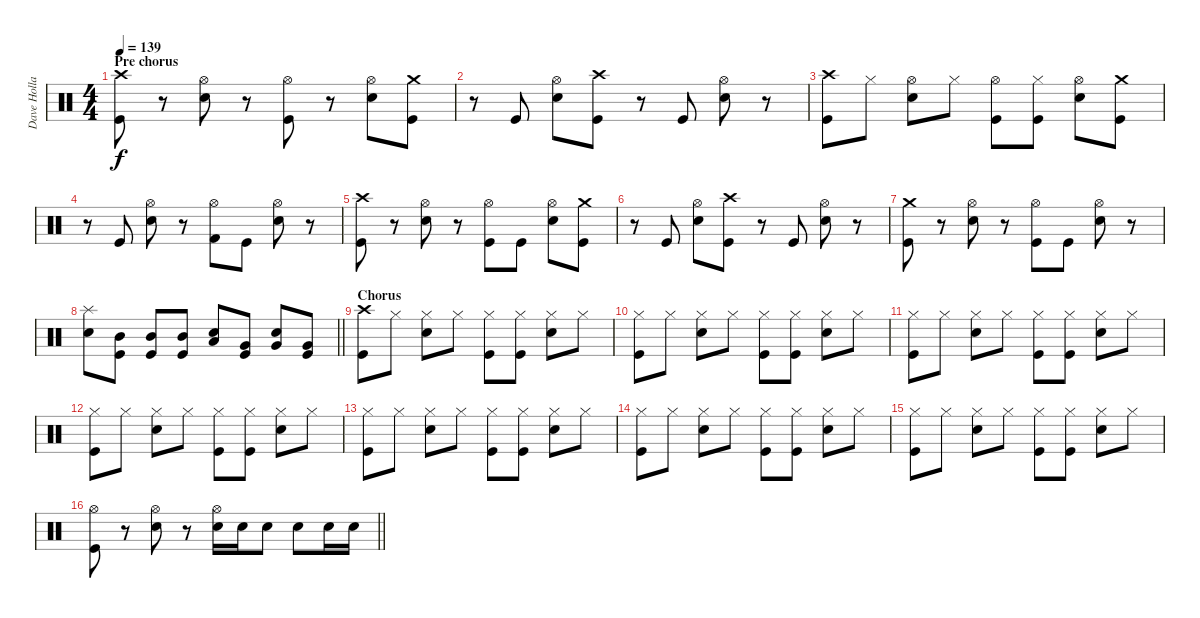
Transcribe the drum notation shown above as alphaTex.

\track ("Dave Holland" "Dave Holla") {instrument percussion}
\staff {score}
\articulation defaults
\ts (4 4)
\section ("" "Pre chorus")
\tempo 139
\clef neutral
\ks c
("Crash high (hit)" "Kick (hit)").8{dy f} r.8 ("Hi-Hat (open)" "Electric Snare (hit)").8 r.8 ("Hi-Hat (open)" "Kick (hit)").8 r.8 ("Hi-Hat (open)" "Electric Snare (hit)").8 ("Crash medium (hit)" "Kick (hit)").8 |
r.8 "Kick (hit)".8 ("Hi-Hat (open)" "Electric Snare (hit)").8 ("Crash high (hit)" "Kick (hit)").8 r.8 "Kick (hit)".8 ("Hi-Hat (open)" "Electric Snare (hit)").8 r.8 |
("Crash high (hit)" "Kick (hit)").8 "Hi-Hat (closed)".8 ("Hi-Hat (open)" "Electric Snare (hit)").8 "Hi-Hat (closed)".8 ("Hi-Hat (open)" "Kick (hit)").8 ("Hi-Hat (closed)" "Kick (hit)").8 ("Hi-Hat (open)" "Electric Snare (hit)").8 ("Crash medium (hit)" "Kick (hit)").8 |
r.8 "Kick (hit)".8 ("Hi-Hat (open)" "Electric Snare (hit)").8 r.8 ("Hi-Hat (open)" "Kick (hit) 2").8 "Kick (hit)".8 ("Hi-Hat (open)" "Electric Snare (hit)").8 r.8 |
("Crash high (hit)" "Kick (hit)").8 r.8 ("Hi-Hat (open)" "Electric Snare (hit)").8 r.8 ("Hi-Hat (open)" "Kick (hit)").8 "Kick (hit)".8 ("Hi-Hat (open)" "Electric Snare (hit)").8 ("Crash medium (hit)" "Kick (hit)").8 |
r.8 "Kick (hit)".8 ("Hi-Hat (open)" "Electric Snare (hit)").8 ("Crash high (hit)" "Kick (hit)").8 r.8 "Kick (hit)".8 ("Hi-Hat (open)" "Electric Snare (hit)").8 r.8 |
("Crash medium (hit)" "Kick (hit)").8 r.8 ("Hi-Hat (open)" "Electric Snare (hit)").8 r.8 ("Hi-Hat (open)" "Kick (hit)").8 "Kick (hit)".8 ("Hi-Hat (open)" "Electric Snare (hit)").8 r.8 |
\barLineRight lightlight
("Splash (hit)" "Electric Snare (hit)").8 ("Mid Tom (hit)" "Kick (hit)").8 ("Mid Tom (hit)" "Kick (hit)").8 ("Mid Tom (hit)" "Kick (hit)").8 ("Low Tom (hit)" "Electric Snare (hit)").8 ("Very Low Tom (hit)" "Kick (hit)").8 ("Very Low Tom (hit)" "Electric Snare (hit)").8 ("Very Low Tom (hit)" "Kick (hit)").8 |
\section ("" "Chorus")
("Crash high (hit)" "Kick (hit)").8 "Hi-Hat (closed)".8 ("Hi-Hat (closed)" "Electric Snare (hit)").8 "Hi-Hat (closed)".8 ("Hi-Hat (closed)" "Kick (hit)").8 ("Hi-Hat (closed)" "Kick (hit)").8 ("Hi-Hat (closed)" "Electric Snare (hit)").8 "Hi-Hat (closed)".8 |
("Hi-Hat (closed)" "Kick (hit)").8 "Hi-Hat (closed)".8 ("Hi-Hat (closed)" "Electric Snare (hit)").8 "Hi-Hat (closed)".8 ("Hi-Hat (closed)" "Kick (hit)").8 ("Hi-Hat (closed)" "Kick (hit)").8 ("Hi-Hat (closed)" "Electric Snare (hit)").8 "Hi-Hat (closed)".8 |
("Hi-Hat (closed)" "Kick (hit)").8 "Hi-Hat (closed)".8 ("Hi-Hat (closed)" "Electric Snare (hit)").8 "Hi-Hat (closed)".8 ("Hi-Hat (closed)" "Kick (hit)").8 ("Hi-Hat (closed)" "Kick (hit)").8 ("Hi-Hat (closed)" "Electric Snare (hit)").8 "Hi-Hat (closed)".8 |
("Hi-Hat (closed)" "Kick (hit)").8 "Hi-Hat (closed)".8 ("Hi-Hat (closed)" "Electric Snare (hit)").8 "Hi-Hat (closed)".8 ("Hi-Hat (closed)" "Kick (hit)").8 ("Hi-Hat (closed)" "Kick (hit)").8 ("Hi-Hat (closed)" "Electric Snare (hit)").8 "Hi-Hat (closed)".8 |
("Hi-Hat (closed)" "Kick (hit)").8 "Hi-Hat (closed)".8 ("Hi-Hat (closed)" "Electric Snare (hit)").8 "Hi-Hat (closed)".8 ("Hi-Hat (closed)" "Kick (hit)").8 ("Hi-Hat (closed)" "Kick (hit)").8 ("Hi-Hat (closed)" "Electric Snare (hit)").8 "Hi-Hat (closed)".8 |
("Hi-Hat (closed)" "Kick (hit)").8 "Hi-Hat (closed)".8 ("Hi-Hat (closed)" "Electric Snare (hit)").8 "Hi-Hat (closed)".8 ("Hi-Hat (closed)" "Kick (hit)").8 ("Hi-Hat (closed)" "Kick (hit)").8 ("Hi-Hat (closed)" "Electric Snare (hit)").8 "Hi-Hat (closed)".8 |
("Hi-Hat (closed)" "Kick (hit)").8 "Hi-Hat (closed)".8 ("Hi-Hat (closed)" "Electric Snare (hit)").8 "Hi-Hat (closed)".8 ("Hi-Hat (closed)" "Kick (hit)").8 ("Hi-Hat (closed)" "Kick (hit)").8 ("Hi-Hat (closed)" "Electric Snare (hit)").8 "Hi-Hat (closed)".8 |
\barLineRight lightlight
("Hi-Hat (open)" "Kick (hit)").8 r.8 ("Hi-Hat (open)" "Electric Snare (hit)").8 r.8 ("Hi-Hat (open)" "Electric Snare (hit)").16 "Electric Snare (hit)".16 "Electric Snare (hit)".8 "Electric Snare (hit)".8 "Electric Snare (hit)".16 "Electric Snare (hit)".16
